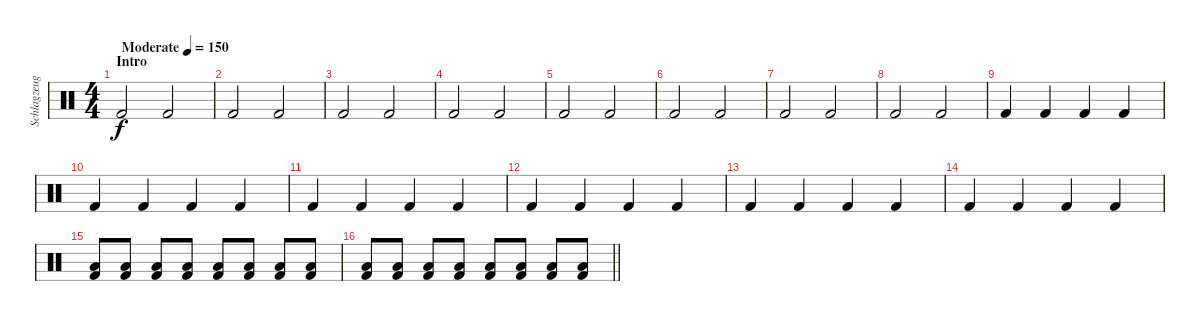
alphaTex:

\track ("Schlagzeug" "Schlagzeug") {instrument percussion}
\staff {score}
\articulation defaults
\ts (4 4)
\section ("" "Intro")
\tempo (150 "Moderate")
\clef neutral
\ks c "Kick (hit) 2".2{dy f} "Kick (hit) 2".2
|
"Kick (hit) 2".2 "Kick (hit) 2".2 |
"Kick (hit) 2".2 "Kick (hit) 2".2 |
"Kick (hit) 2".2 "Kick (hit) 2".2 |
"Kick (hit) 2".2 "Kick (hit) 2".2 |
"Kick (hit) 2".2 "Kick (hit) 2".2 |
"Kick (hit) 2".2 "Kick (hit) 2".2 |
"Kick (hit) 2".2 "Kick (hit) 2".2 |
"Kick (hit) 2".4 "Kick (hit) 2".4 "Kick (hit) 2".4 "Kick (hit) 2".4 |
"Kick (hit) 2".4 "Kick (hit) 2".4 "Kick (hit) 2".4 "Kick (hit) 2".4 |
"Kick (hit) 2".4 "Kick (hit) 2".4 "Kick (hit) 2".4 "Kick (hit) 2".4 |
"Kick (hit) 2".4 "Kick (hit) 2".4 "Kick (hit) 2".4 "Kick (hit) 2".4 |
"Kick (hit) 2".4 "Kick (hit) 2".4 "Kick (hit) 2".4 "Kick (hit) 2".4 |
"Kick (hit) 2".4 "Kick (hit) 2".4 "Kick (hit) 2".4 "Kick (hit) 2".4 |
("Low Tom (hit)" "Kick (hit) 2").8 ("Low Tom (hit)" "Kick (hit) 2").8 ("Low Tom (hit)" "Kick (hit) 2").8 ("Low Tom (hit)" "Kick (hit) 2").8 ("Low Tom (hit)" "Kick (hit) 2").8 ("Low Tom (hit)" "Kick (hit) 2").8 ("Low Tom (hit)" "Kick (hit) 2").8 ("Low Tom (hit)" "Kick (hit) 2").8 |
\barLineRight lightlight
("Low Tom (hit)" "Kick (hit) 2").8 ("Low Tom (hit)" "Kick (hit) 2").8 ("Low Tom (hit)" "Kick (hit) 2").8 ("Low Tom (hit)" "Kick (hit) 2").8 ("Low Tom (hit)" "Kick (hit) 2").8 ("Low Tom (hit)" "Kick (hit) 2").8 ("Low Tom (hit)" "Kick (hit) 2").8 ("Low Tom (hit)" "Kick (hit) 2").8
